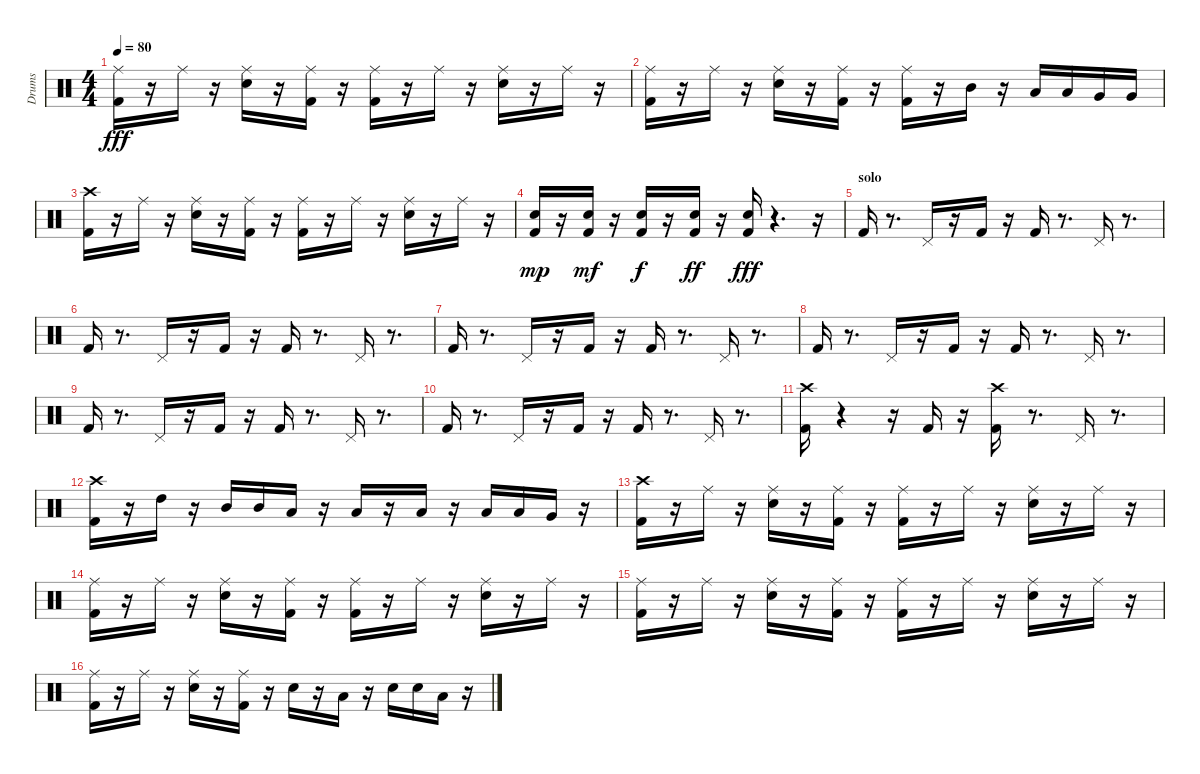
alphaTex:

\track ("Drums" "Drums") {instrument percussion}
\staff {score}
\articulation defaults
\ts (4 4)
\tempo 80
\clef neutral
\ks c
("Kick (hit) 2" "Ride (middle)").16{dy fff} r.16 "Ride (middle)".16 r.16 ("Electric Snare (hit)" "Ride (middle)").16 r.16 ("Kick (hit) 2" "Ride (middle)").16 r.16 ("Kick (hit) 2" "Ride (middle)").16 r.16 "Ride (middle)".16 r.16 ("Electric Snare (hit)" "Ride (middle)").16 r.16 "Ride (middle)".16 r.16 |
("Kick (hit) 2" "Ride (middle)").16 r.16 "Ride (middle)".16 r.16 ("Electric Snare (hit)" "Ride (middle)").16 r.16 ("Kick (hit) 2" "Ride (middle)").16 r.16 ("Kick (hit) 2" "Ride (middle)").16 r.16 "Mid Tom (hit)".16 r.16 "Low Tom (hit)".16 "Low Tom (hit)".16 "Very Low Tom (hit)".16 "Very Low Tom (hit)".16 |
("Kick (hit) 2" "Crash high (hit)").16 r.16 "Ride (middle)".16 r.16 ("Electric Snare (hit)" "Ride (middle)").16 r.16 ("Kick (hit) 2" "Ride (middle)").16 r.16 ("Kick (hit) 2" "Ride (middle)").16 r.16 "Ride (middle)".16 r.16 ("Electric Snare (hit)" "Ride (middle)").16 r.16 "Ride (middle)".16 r.16 |
("Kick (hit) 2" "Electric Snare (hit)").16{dy mp} r.16 ("Kick (hit) 2" "Electric Snare (hit)").16{dy mf} r.16 ("Kick (hit) 2" "Electric Snare (hit)").16{dy f} r.16 ("Kick (hit) 2" "Electric Snare (hit)").16{dy ff} r.16 ("Kick (hit) 2" "Electric Snare (hit)").16{dy fff} r.4{d} r.16 |
\section ("" "solo")
"Kick (hit) 2".16 r.8{d} "Pedal Hi-Hat (hit)".16 r.16 "Kick (hit) 2".16 r.16 "Kick (hit) 2".16 r.8{d} "Pedal Hi-Hat (hit)".16 r.8{d} |
"Kick (hit) 2".16 r.8{d} "Pedal Hi-Hat (hit)".16 r.16 "Kick (hit) 2".16 r.16 "Kick (hit) 2".16 r.8{d} "Pedal Hi-Hat (hit)".16 r.8{d} |
"Kick (hit) 2".16 r.8{d} "Pedal Hi-Hat (hit)".16 r.16 "Kick (hit) 2".16 r.16 "Kick (hit) 2".16 r.8{d} "Pedal Hi-Hat (hit)".16 r.8{d} |
"Kick (hit) 2".16 r.8{d} "Pedal Hi-Hat (hit)".16 r.16 "Kick (hit) 2".16 r.16 "Kick (hit) 2".16 r.8{d} "Pedal Hi-Hat (hit)".16 r.8{d} |
"Kick (hit) 2".16 r.8{d} "Pedal Hi-Hat (hit)".16 r.16 "Kick (hit) 2".16 r.16 "Kick (hit) 2".16 r.8{d} "Pedal Hi-Hat (hit)".16 r.8{d} |
"Kick (hit) 2".16 r.8{d} "Pedal Hi-Hat (hit)".16 r.16 "Kick (hit) 2".16 r.16 "Kick (hit) 2".16 r.8{d} "Pedal Hi-Hat (hit)".16 r.8{d} |
("Kick (hit) 2" "Crash high (hit)").16 r.4 r.16 "Kick (hit) 2".16 r.16 ("Crash high (hit)" "Kick (hit) 2").16 r.8{d} "Pedal Hi-Hat (hit)".16 r.8{d} |
("Kick (hit) 2" "Crash high (hit)").16 r.16 "High Tom (hit)".16 r.16 "Mid Tom (hit)".16 "Mid Tom (hit)".16 "Low Tom (hit)".16 r.16 "Low Tom (hit)".16 r.16 "Low Tom (hit)".16 r.16 "Low Tom (hit)".16 "Low Tom (hit)".16 "Very Low Tom (hit)".16 r.16 |
("Crash high (hit)" "Kick (hit) 2").16 r.16 "Ride (middle)".16 r.16 ("Electric Snare (hit)" "Ride (middle)").16 r.16 ("Kick (hit) 2" "Ride (middle)").16 r.16 ("Kick (hit) 2" "Ride (middle)").16 r.16 "Ride (middle)".16 r.16 ("Electric Snare (hit)" "Ride (middle)").16 r.16 "Ride (middle)".16 r.16 |
("Kick (hit) 2" "Ride (middle)").16 r.16 "Ride (middle)".16 r.16 ("Electric Snare (hit)" "Ride (middle)").16 r.16 ("Kick (hit) 2" "Ride (middle)").16 r.16 ("Kick (hit) 2" "Ride (middle)").16 r.16 "Ride (middle)".16 r.16 ("Electric Snare (hit)" "Ride (middle)").16 r.16 "Ride (middle)".16 r.16 |
("Kick (hit) 2" "Ride (middle)").16 r.16 "Ride (middle)".16 r.16 ("Electric Snare (hit)" "Ride (middle)").16 r.16 ("Kick (hit) 2" "Ride (middle)").16 r.16 ("Kick (hit) 2" "Ride (middle)").16 r.16 "Ride (middle)".16 r.16 ("Electric Snare (hit)" "Ride (middle)").16 r.16 "Ride (middle)".16 r.16 |
("Kick (hit) 2" "Ride (middle)").16 r.16 "Ride (middle)".16 r.16 ("Electric Snare (hit)" "Ride (middle)").16 r.16 ("Kick (hit) 2" "Ride (middle)").16 r.16 "Electric Snare (hit)".16 r.16 "Low Tom (hit)".16 r.16 "Electric Snare (hit)".16 "Electric Snare (hit)".16 "Low Tom (hit)".16 r.16
